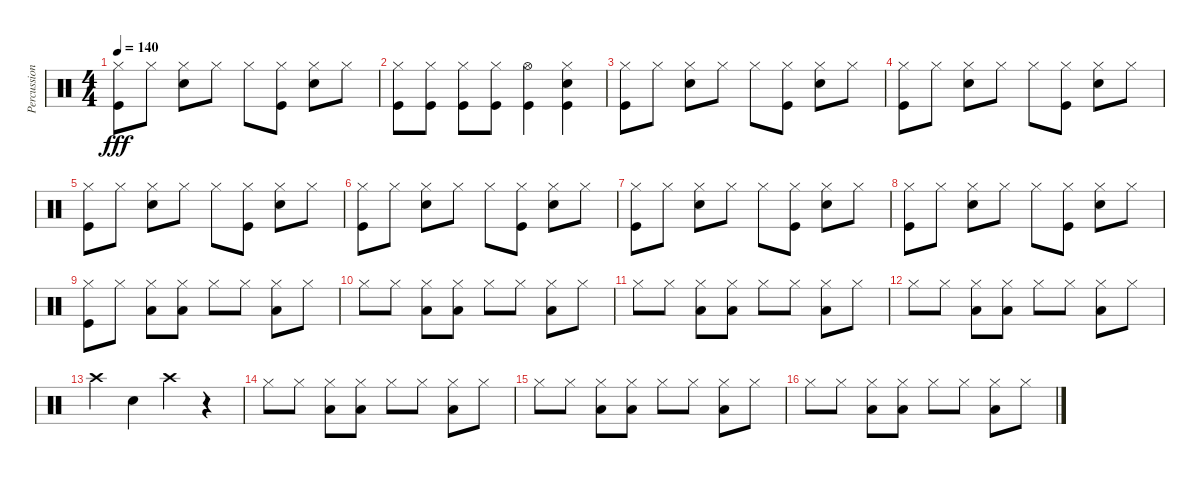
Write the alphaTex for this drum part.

\track ("Percussion" "Percussion") {instrument percussion}
\staff {score}
\articulation defaults
\ts (4 4)
\tempo 140
\clef neutral
\ks c
("Hi-Hat (closed)" "Kick (hit)").8{dy fff} "Hi-Hat (closed)".8 ("Hi-Hat (closed)" "Snare (hit) 2").8 "Hi-Hat (closed)".8 "Hi-Hat (closed)".8 ("Hi-Hat (closed)" "Kick (hit)").8 ("Hi-Hat (closed)" "Snare (hit) 2").8 "Hi-Hat (closed)".8 |
("Hi-Hat (closed)" "Kick (hit)").8 ("Hi-Hat (closed)" "Kick (hit)").8 ("Hi-Hat (closed)" "Kick (hit)").8 ("Hi-Hat (closed)" "Kick (hit)").8 ("Hi-Hat (open)" "Kick (hit)").4 ("Hi-Hat (closed)" "Snare (hit) 2" "Kick (hit)").4 |
("Hi-Hat (closed)" "Kick (hit)").8 "Hi-Hat (closed)".8 ("Hi-Hat (closed)" "Snare (hit) 2").8 "Hi-Hat (closed)".8 "Hi-Hat (closed)".8 ("Hi-Hat (closed)" "Kick (hit)").8 ("Hi-Hat (closed)" "Snare (hit) 2").8 "Hi-Hat (closed)".8 |
("Hi-Hat (closed)" "Kick (hit)").8 "Hi-Hat (closed)".8 ("Hi-Hat (closed)" "Snare (hit) 2").8 "Hi-Hat (closed)".8 "Hi-Hat (closed)".8 ("Hi-Hat (closed)" "Kick (hit)").8 ("Hi-Hat (closed)" "Snare (hit) 2").8 "Hi-Hat (closed)".8 |
("Hi-Hat (closed)" "Kick (hit)").8 "Hi-Hat (closed)".8 ("Hi-Hat (closed)" "Snare (hit) 2").8 "Hi-Hat (closed)".8 "Hi-Hat (closed)".8 ("Hi-Hat (closed)" "Kick (hit)").8 ("Hi-Hat (closed)" "Snare (hit) 2").8 "Hi-Hat (closed)".8 |
("Hi-Hat (closed)" "Kick (hit)").8 "Hi-Hat (closed)".8 ("Hi-Hat (closed)" "Snare (hit) 2").8 "Hi-Hat (closed)".8 "Hi-Hat (closed)".8 ("Hi-Hat (closed)" "Kick (hit)").8 ("Hi-Hat (closed)" "Snare (hit) 2").8 "Hi-Hat (closed)".8 |
("Hi-Hat (closed)" "Kick (hit)").8 "Hi-Hat (closed)".8 ("Hi-Hat (closed)" "Snare (hit) 2").8 "Hi-Hat (closed)".8 "Hi-Hat (closed)".8 ("Hi-Hat (closed)" "Kick (hit)").8 ("Hi-Hat (closed)" "Snare (hit) 2").8 "Hi-Hat (closed)".8 |
("Hi-Hat (closed)" "Kick (hit)").8 "Hi-Hat (closed)".8 ("Hi-Hat (closed)" "Snare (hit) 2").8 "Hi-Hat (closed)".8 "Hi-Hat (closed)".8 ("Hi-Hat (closed)" "Kick (hit)").8 ("Hi-Hat (closed)" "Snare (hit) 2").8 "Hi-Hat (closed)".8 |
("Hi-Hat (closed)" "Kick (hit)").8 "Hi-Hat (closed)".8 ("Hi-Hat (closed)" "Low Tom (hit)").8 ("Hi-Hat (closed)" "Low Tom (hit)").8 "Hi-Hat (closed)".8 "Hi-Hat (closed)".8 ("Hi-Hat (closed)" "Low Tom (hit)").8 "Hi-Hat (closed)".8 |
"Hi-Hat (closed)".8 "Hi-Hat (closed)".8 ("Hi-Hat (closed)" "Low Tom (hit)").8 ("Hi-Hat (closed)" "Low Tom (hit)").8 "Hi-Hat (closed)".8 "Hi-Hat (closed)".8 ("Hi-Hat (closed)" "Low Tom (hit)").8 "Hi-Hat (closed)".8 |
"Hi-Hat (closed)".8 "Hi-Hat (closed)".8 ("Hi-Hat (closed)" "Low Tom (hit)").8 ("Hi-Hat (closed)" "Low Tom (hit)").8 "Hi-Hat (closed)".8 "Hi-Hat (closed)".8 ("Hi-Hat (closed)" "Low Tom (hit)").8 "Hi-Hat (closed)".8 |
"Hi-Hat (closed)".8 "Hi-Hat (closed)".8 ("Hi-Hat (closed)" "Low Tom (hit)").8 ("Hi-Hat (closed)" "Low Tom (hit)").8 "Hi-Hat (closed)".8 "Hi-Hat (closed)".8 ("Hi-Hat (closed)" "Low Tom (hit)").8 "Hi-Hat (closed)".8 |
"Crash high (hit)".4 "Snare (hit) 2".4 "Crash high (hit)".4 r.4 |
"Hi-Hat (closed)".8 "Hi-Hat (closed)".8 ("Hi-Hat (closed)" "Low Tom (hit)").8 ("Hi-Hat (closed)" "Low Tom (hit)").8 "Hi-Hat (closed)".8 "Hi-Hat (closed)".8 ("Hi-Hat (closed)" "Low Tom (hit)").8 "Hi-Hat (closed)".8 |
"Hi-Hat (closed)".8 "Hi-Hat (closed)".8 ("Hi-Hat (closed)" "Low Tom (hit)").8 ("Hi-Hat (closed)" "Low Tom (hit)").8 "Hi-Hat (closed)".8 "Hi-Hat (closed)".8 ("Hi-Hat (closed)" "Low Tom (hit)").8 "Hi-Hat (closed)".8 |
"Hi-Hat (closed)".8 "Hi-Hat (closed)".8 ("Hi-Hat (closed)" "Low Tom (hit)").8 ("Hi-Hat (closed)" "Low Tom (hit)").8 "Hi-Hat (closed)".8 "Hi-Hat (closed)".8 ("Hi-Hat (closed)" "Low Tom (hit)").8 "Hi-Hat (closed)".8
